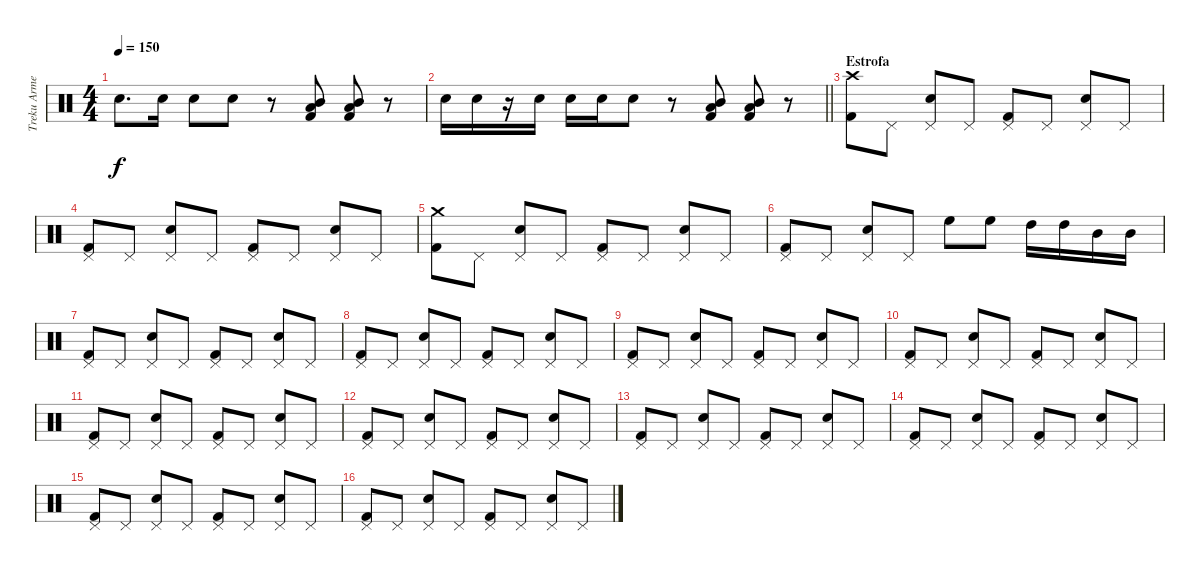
\track ("Treku Armendáriz" "Treku Arme") {instrument percussion}
\staff {score}
\articulation defaults
\ts (4 4)
\tempo 150
\clef neutral
\ks c "Electric Snare (hit)".8{d dy f} "Electric Snare (hit)".16 "Electric Snare (hit)".8 "Electric Snare (hit)".8
r.8 ("Kick (hit) 2" "Low Tom (hit)" "Mid Tom (hit)").8 ("Kick (hit) 2" "Low Tom (hit)" "Mid Tom (hit)").8 r.8 |
\barLineRight lightlight "Electric Snare (hit)".16 "Electric Snare (hit)".16
r.16 "Electric Snare (hit)".16 "Electric Snare (hit)".16 "Electric Snare (hit)".16 "Electric Snare (hit)".8 r.8 ("Kick (hit) 2" "Low Tom (hit)" "Mid Tom (hit)").8 ("Kick (hit) 2" "Low Tom (hit)" "Mid Tom (hit)").8 r.8 |
\section ("" "Estrofa")
("Crash high (hit)" "Kick (hit) 2").8 "Pedal Hi-Hat (hit)".8 ("Pedal Hi-Hat (hit)" "Electric Snare (hit)").8 "Pedal Hi-Hat (hit)".8 ("Pedal Hi-Hat (hit)" "Kick (hit) 2").8 "Pedal Hi-Hat (hit)".8 ("Pedal Hi-Hat (hit)" "Electric Snare (hit)").8 "Pedal Hi-Hat (hit)".8 |
("Pedal Hi-Hat (hit)" "Kick (hit) 2").8 "Pedal Hi-Hat (hit)".8 ("Pedal Hi-Hat (hit)" "Electric Snare (hit)").8 "Pedal Hi-Hat (hit)".8 ("Pedal Hi-Hat (hit)" "Kick (hit) 2").8 "Pedal Hi-Hat (hit)".8 ("Pedal Hi-Hat (hit)" "Electric Snare (hit)").8 "Pedal Hi-Hat (hit)".8 |
("Crash medium (hit)" "Kick (hit) 2").8 "Pedal Hi-Hat (hit)".8 ("Pedal Hi-Hat (hit)" "Electric Snare (hit)").8 "Pedal Hi-Hat (hit)".8 ("Pedal Hi-Hat (hit)" "Kick (hit) 2").8 "Pedal Hi-Hat (hit)".8 ("Pedal Hi-Hat (hit)" "Electric Snare (hit)").8 "Pedal Hi-Hat (hit)".8 |
("Pedal Hi-Hat (hit)" "Kick (hit) 2").8 "Pedal Hi-Hat (hit)".8 ("Pedal Hi-Hat (hit)" "Electric Snare (hit)").8 "Pedal Hi-Hat (hit)".8 "High Floor Tom (hit)".8 "High Floor Tom (hit)".8 "High Tom (hit)".16 "High Tom (hit)".16 "Mid Tom (hit)".16 "Mid Tom (hit)".16 |
("Pedal Hi-Hat (hit)" "Kick (hit) 2").8 "Pedal Hi-Hat (hit)".8 ("Pedal Hi-Hat (hit)" "Electric Snare (hit)").8 "Pedal Hi-Hat (hit)".8 ("Pedal Hi-Hat (hit)" "Kick (hit) 2").8 "Pedal Hi-Hat (hit)".8 ("Pedal Hi-Hat (hit)" "Electric Snare (hit)").8 "Pedal Hi-Hat (hit)".8 |
("Pedal Hi-Hat (hit)" "Kick (hit) 2").8 "Pedal Hi-Hat (hit)".8 ("Pedal Hi-Hat (hit)" "Electric Snare (hit)").8 "Pedal Hi-Hat (hit)".8 ("Pedal Hi-Hat (hit)" "Kick (hit) 2").8 "Pedal Hi-Hat (hit)".8 ("Pedal Hi-Hat (hit)" "Electric Snare (hit)").8 "Pedal Hi-Hat (hit)".8 |
("Pedal Hi-Hat (hit)" "Kick (hit) 2").8 "Pedal Hi-Hat (hit)".8 ("Pedal Hi-Hat (hit)" "Electric Snare (hit)").8 "Pedal Hi-Hat (hit)".8 ("Pedal Hi-Hat (hit)" "Kick (hit) 2").8 "Pedal Hi-Hat (hit)".8 ("Pedal Hi-Hat (hit)" "Electric Snare (hit)").8 "Pedal Hi-Hat (hit)".8 |
("Pedal Hi-Hat (hit)" "Kick (hit) 2").8 "Pedal Hi-Hat (hit)".8 ("Pedal Hi-Hat (hit)" "Electric Snare (hit)").8 "Pedal Hi-Hat (hit)".8 ("Pedal Hi-Hat (hit)" "Kick (hit) 2").8 "Pedal Hi-Hat (hit)".8 ("Pedal Hi-Hat (hit)" "Electric Snare (hit)").8 "Pedal Hi-Hat (hit)".8 |
("Pedal Hi-Hat (hit)" "Kick (hit) 2").8 "Pedal Hi-Hat (hit)".8 ("Pedal Hi-Hat (hit)" "Electric Snare (hit)").8 "Pedal Hi-Hat (hit)".8 ("Pedal Hi-Hat (hit)" "Kick (hit) 2").8 "Pedal Hi-Hat (hit)".8 ("Pedal Hi-Hat (hit)" "Electric Snare (hit)").8 "Pedal Hi-Hat (hit)".8 |
("Pedal Hi-Hat (hit)" "Kick (hit) 2").8 "Pedal Hi-Hat (hit)".8 ("Pedal Hi-Hat (hit)" "Electric Snare (hit)").8 "Pedal Hi-Hat (hit)".8 ("Pedal Hi-Hat (hit)" "Kick (hit) 2").8 "Pedal Hi-Hat (hit)".8 ("Pedal Hi-Hat (hit)" "Electric Snare (hit)").8 "Pedal Hi-Hat (hit)".8 |
("Pedal Hi-Hat (hit)" "Kick (hit) 2").8 "Pedal Hi-Hat (hit)".8 ("Pedal Hi-Hat (hit)" "Electric Snare (hit)").8 "Pedal Hi-Hat (hit)".8 ("Pedal Hi-Hat (hit)" "Kick (hit) 2").8 "Pedal Hi-Hat (hit)".8 ("Pedal Hi-Hat (hit)" "Electric Snare (hit)").8 "Pedal Hi-Hat (hit)".8 |
("Pedal Hi-Hat (hit)" "Kick (hit) 2").8 "Pedal Hi-Hat (hit)".8 ("Pedal Hi-Hat (hit)" "Electric Snare (hit)").8 "Pedal Hi-Hat (hit)".8 ("Pedal Hi-Hat (hit)" "Kick (hit) 2").8 "Pedal Hi-Hat (hit)".8 ("Pedal Hi-Hat (hit)" "Electric Snare (hit)").8 "Pedal Hi-Hat (hit)".8 |
("Pedal Hi-Hat (hit)" "Kick (hit) 2").8 "Pedal Hi-Hat (hit)".8 ("Pedal Hi-Hat (hit)" "Electric Snare (hit)").8 "Pedal Hi-Hat (hit)".8 ("Pedal Hi-Hat (hit)" "Kick (hit) 2").8 "Pedal Hi-Hat (hit)".8 ("Pedal Hi-Hat (hit)" "Electric Snare (hit)").8 "Pedal Hi-Hat (hit)".8 |
("Pedal Hi-Hat (hit)" "Kick (hit) 2").8 "Pedal Hi-Hat (hit)".8 ("Pedal Hi-Hat (hit)" "Electric Snare (hit)").8 "Pedal Hi-Hat (hit)".8 ("Pedal Hi-Hat (hit)" "Kick (hit) 2").8 "Pedal Hi-Hat (hit)".8 ("Pedal Hi-Hat (hit)" "Electric Snare (hit)").8 "Pedal Hi-Hat (hit)".8
